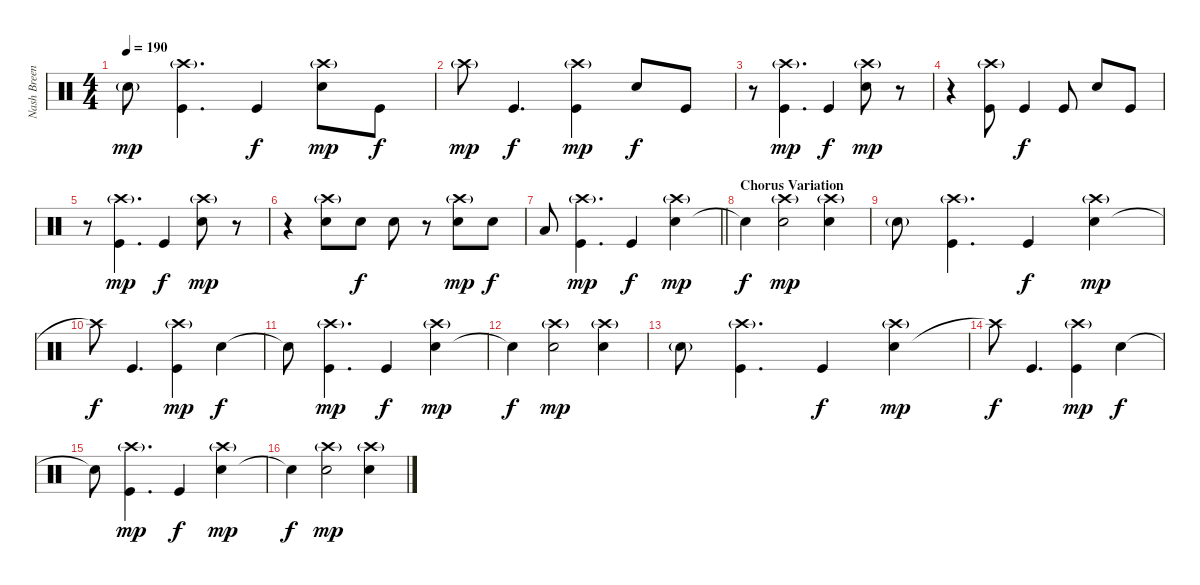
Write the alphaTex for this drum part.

\track ("Nash Breen (Percussion)" "Nash Breen") {instrument percussion}
\staff {score}
\articulation defaults
\ts (4 4)
\tempo 190
\clef neutral
\ks c "Electric Snare (hit)"{g}.8{dy mp}
("Kick (hit)" "Crash high (hit)"{g}).4{d} "Kick (hit)".4{dy f} ("Electric Snare (hit)" "Crash high (hit)"{g}).8{dy mp} "Kick (hit)".8{dy f} |
"Crash high (hit)"{g}.8{dy mp} "Kick (hit)".4{d dy f} ("Kick (hit)" "Crash high (hit)"{g}).4{dy mp} "Electric Snare (hit)".8{dy f} "Kick (hit)".8 |
r.8 ("Kick (hit)" "Crash high (hit)"{g}).4{d dy mp} "Kick (hit)".4{dy f} ("Electric Snare (hit)" "Crash high (hit)"{g}).8{dy mp} r.8 |
r.4 ("Kick (hit)" "Crash high (hit)"{g}).8 "Kick (hit)".4{dy f} "Kick (hit)".8 "Electric Snare (hit)".8 "Kick (hit)".8 |
r.8 ("Kick (hit)" "Crash high (hit)"{g}).4{d dy mp} "Kick (hit)".4{dy f} ("Electric Snare (hit)" "Crash high (hit)"{g}).8{dy mp} r.8 |
r.4 ("Electric Snare (hit)" "Crash high (hit)"{g}).8 "Electric Snare (hit)".8{dy f} "Electric Snare (hit)".8 r.8 ("Electric Snare (hit)" "Crash high (hit)"{g}).8{dy mp} "Electric Snare (hit)".8{dy f} |
\barLineRight lightlight "Low Tom (hit)".8
("Kick (hit)" "Crash high (hit)"{g}).4{d dy mp} "Kick (hit)".4{dy f} ("Electric Snare (hit)" "Crash high (hit)"{g}).4{dy mp} |
\section ("" "Chorus Variation")
"Electric Snare (hit)"{t}.4{dy f} ("Electric Snare (hit)" "Crash high (hit)"{g}).2{dy mp} ("Electric Snare (hit)" "Crash high (hit)"{g}).4 |
"Electric Snare (hit)"{g}.8 ("Kick (hit)" "Crash high (hit)"{g}).4{d} "Kick (hit)".4{dy f} ("Electric Snare (hit)" "Crash high (hit)"{g}).4{dy mp} |
"Crash high (hit)"{t}.8{dy f} "Kick (hit)".4{d} ("Kick (hit)" "Crash high (hit)"{g}).4{dy mp} "Electric Snare (hit)".4{dy f} |
"Electric Snare (hit)"{t}.8 ("Kick (hit)" "Crash high (hit)"{g}).4{d dy mp} "Kick (hit)".4{dy f} ("Electric Snare (hit)" "Crash high (hit)"{g}).4{dy mp} |
"Electric Snare (hit)"{t}.4{dy f} ("Electric Snare (hit)" "Crash high (hit)"{g}).2{dy mp} ("Electric Snare (hit)" "Crash high (hit)"{g}).4 |
"Electric Snare (hit)"{g}.8 ("Kick (hit)" "Crash high (hit)"{g}).4{d} "Kick (hit)".4{dy f} ("Electric Snare (hit)" "Crash high (hit)"{g}).4{dy mp} |
"Crash high (hit)"{t}.8{dy f} "Kick (hit)".4{d} ("Kick (hit)" "Crash high (hit)"{g}).4{dy mp} "Electric Snare (hit)".4{dy f} |
"Electric Snare (hit)"{t}.8 ("Kick (hit)" "Crash high (hit)"{g}).4{d dy mp} "Kick (hit)".4{dy f} ("Electric Snare (hit)" "Crash high (hit)"{g}).4{dy mp} |
"Electric Snare (hit)"{t}.4{dy f} ("Electric Snare (hit)" "Crash high (hit)"{g}).2{dy mp} ("Electric Snare (hit)" "Crash high (hit)"{g}).4
